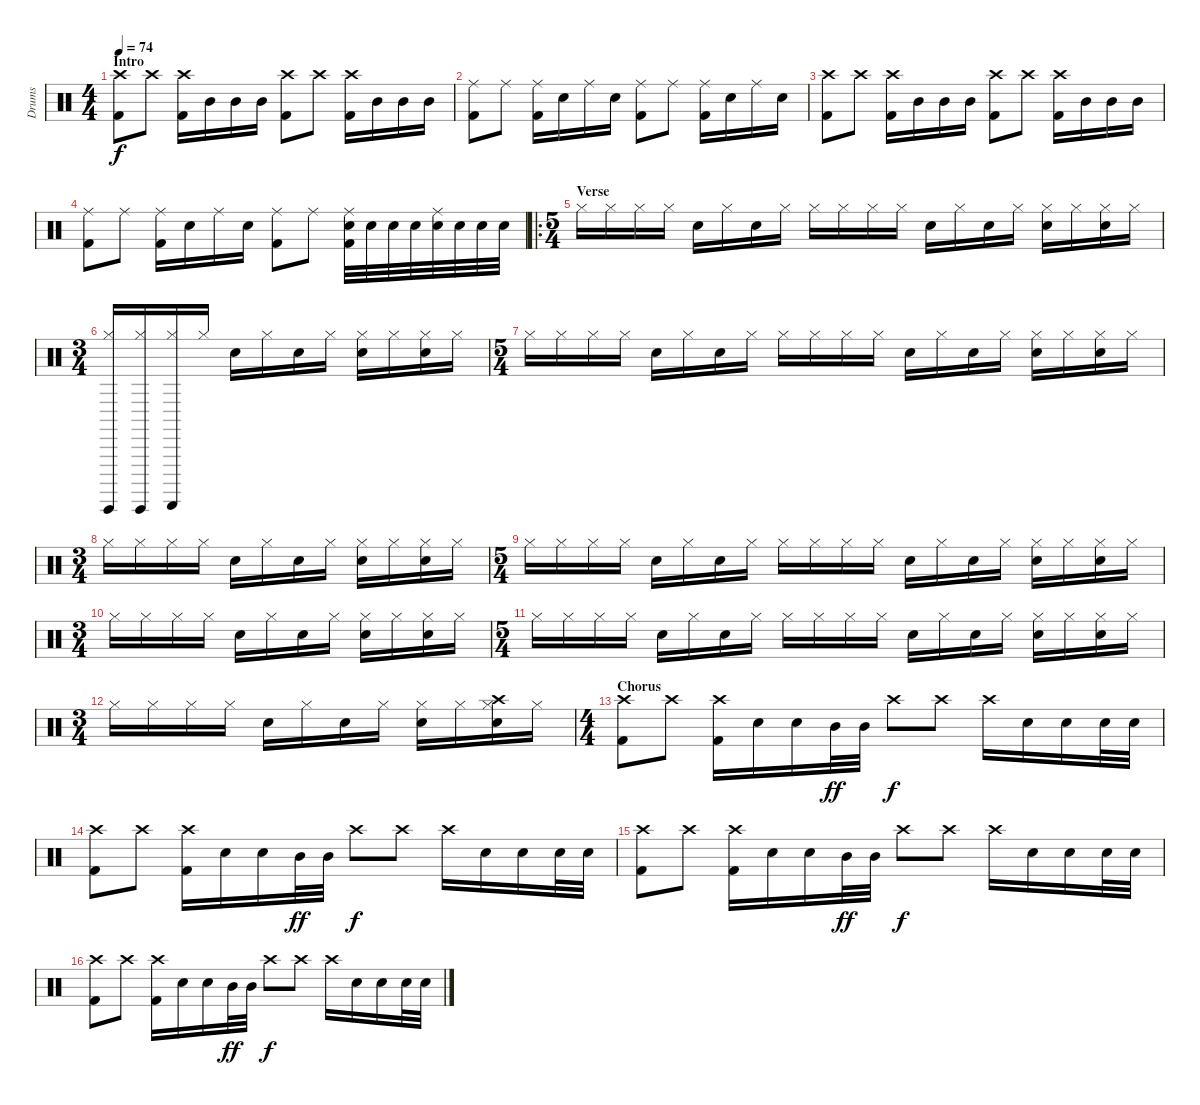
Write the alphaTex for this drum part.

\track ("Drums" "Drums") {instrument percussion}
\staff {score}
\articulation defaults
\ts (4 4)
\section ("" "Intro")
\tempo 74
\clef neutral
\ks c
("Crash high (hit)" "Kick (hit) 2").8{dy f} "Crash high (hit)".8 ("Crash high (hit)" "Kick (hit) 2").16 "Mid Tom (hit)".16 "Mid Tom (hit)".16 "Mid Tom (hit)".16 ("Crash high (hit)" "Kick (hit) 2").8 "Crash high (hit)".8 ("Crash high (hit)" "Kick (hit) 2").16 "Mid Tom (hit)".16 "Mid Tom (hit)".16 "Mid Tom (hit)".16 |
("Ride (middle)" "Kick (hit) 2").8 "Ride (middle)".8 ("Ride (middle)" "Kick (hit) 2").16 "Electric Snare (hit)".16 "Ride (middle)".16 "Electric Snare (hit)".16 ("Ride (middle)" "Kick (hit) 2").8 "Ride (middle)".8 ("Ride (middle)" "Kick (hit) 2").16 "Electric Snare (hit)".16 "Ride (middle)".16 "Electric Snare (hit)".16 |
("Crash high (hit)" "Kick (hit) 2").8 "Crash high (hit)".8 ("Crash high (hit)" "Kick (hit) 2").16 "Mid Tom (hit)".16 "Mid Tom (hit)".16 "Mid Tom (hit)".16 ("Crash high (hit)" "Kick (hit) 2").8 "Crash high (hit)".8 ("Crash high (hit)" "Kick (hit) 2").16 "Mid Tom (hit)".16 "Mid Tom (hit)".16 "Mid Tom (hit)".16 |
("Ride (middle)" "Kick (hit) 2").8 "Ride (middle)".8 ("Ride (middle)" "Kick (hit) 2").16 "Electric Snare (hit)".16 "Ride (middle)".16 "Electric Snare (hit)".16 ("Ride (middle)" "Kick (hit) 2").8 "Ride (middle)".8 ("Ride (middle)" "Electric Snare (hit)" "Kick (hit) 2").32 "Electric Snare (hit)".32 "Electric Snare (hit)".32 "Electric Snare (hit)".32 ("Ride (middle)" "Electric Snare (hit)").32 "Electric Snare (hit)".32 "Electric Snare (hit)".32 "Electric Snare (hit)".32 |
\ro
\ts (5 4)
\section ("" "Verse")
"Hi-Hat (closed)".16 "Hi-Hat (closed)".16 "Hi-Hat (closed)".16 "Hi-Hat (closed)".16 "Electric Snare (hit)".16 "Hi-Hat (closed)".16 "Electric Snare (hit)".16 "Hi-Hat (closed)".16 "Hi-Hat (closed)".16 "Hi-Hat (closed)".16 "Hi-Hat (closed)".16 "Hi-Hat (closed)".16 "Electric Snare (hit)".16 "Hi-Hat (closed)".16 "Electric Snare (hit)".16 "Hi-Hat (closed)".16 ("Hi-Hat (closed)" "Electric Snare (hit)").16 "Hi-Hat (closed)".16 ("Hi-Hat (closed)" "Electric Snare (hit)").16 "Hi-Hat (closed)".16 |
\ts (3 4)
("Guiro (hit)" "Hi-Hat (closed)").16 ("Guiro (hit)" "Hi-Hat (closed)").16 ("Guiro (scrap-return)" "Hi-Hat (closed)").16 "Hi-Hat (closed)".16 "Electric Snare (hit)".16 "Hi-Hat (closed)".16 "Electric Snare (hit)".16 "Hi-Hat (closed)".16 ("Hi-Hat (closed)" "Electric Snare (hit)").16 "Hi-Hat (closed)".16 ("Hi-Hat (closed)" "Electric Snare (hit)").16 "Hi-Hat (closed)".16 |
\ts (5 4)
"Hi-Hat (closed)".16 "Hi-Hat (closed)".16 "Hi-Hat (closed)".16 "Hi-Hat (closed)".16 "Electric Snare (hit)".16 "Hi-Hat (closed)".16 "Electric Snare (hit)".16 "Hi-Hat (closed)".16 "Hi-Hat (closed)".16 "Hi-Hat (closed)".16 "Hi-Hat (closed)".16 "Hi-Hat (closed)".16 "Electric Snare (hit)".16 "Hi-Hat (closed)".16 "Electric Snare (hit)".16 "Hi-Hat (closed)".16 ("Hi-Hat (closed)" "Electric Snare (hit)").16 "Hi-Hat (closed)".16 ("Hi-Hat (closed)" "Electric Snare (hit)").16 "Hi-Hat (closed)".16 |
\ts (3 4)
"Hi-Hat (closed)".16 "Hi-Hat (closed)".16 "Hi-Hat (closed)".16 "Hi-Hat (closed)".16 "Electric Snare (hit)".16 "Hi-Hat (closed)".16 "Electric Snare (hit)".16 "Hi-Hat (closed)".16 ("Hi-Hat (closed)" "Electric Snare (hit)").16 "Hi-Hat (closed)".16 ("Hi-Hat (closed)" "Electric Snare (hit)").16 "Hi-Hat (closed)".16 |
\ts (5 4)
"Hi-Hat (closed)".16 "Hi-Hat (closed)".16 "Hi-Hat (closed)".16 "Hi-Hat (closed)".16 "Electric Snare (hit)".16 "Hi-Hat (closed)".16 "Electric Snare (hit)".16 "Hi-Hat (closed)".16 "Hi-Hat (closed)".16 "Hi-Hat (closed)".16 "Hi-Hat (closed)".16 "Hi-Hat (closed)".16 "Electric Snare (hit)".16 "Hi-Hat (closed)".16 "Electric Snare (hit)".16 "Hi-Hat (closed)".16 ("Hi-Hat (closed)" "Electric Snare (hit)").16 "Hi-Hat (closed)".16 ("Hi-Hat (closed)" "Electric Snare (hit)").16 "Hi-Hat (closed)".16 |
\ts (3 4)
"Hi-Hat (closed)".16 "Hi-Hat (closed)".16 "Hi-Hat (closed)".16 "Hi-Hat (closed)".16 "Electric Snare (hit)".16 "Hi-Hat (closed)".16 "Electric Snare (hit)".16 "Hi-Hat (closed)".16 ("Hi-Hat (closed)" "Electric Snare (hit)").16 "Hi-Hat (closed)".16 ("Hi-Hat (closed)" "Electric Snare (hit)").16 "Hi-Hat (closed)".16 |
\ts (5 4)
"Hi-Hat (closed)".16 "Hi-Hat (closed)".16 "Hi-Hat (closed)".16 "Hi-Hat (closed)".16 "Electric Snare (hit)".16 "Hi-Hat (closed)".16 "Electric Snare (hit)".16 "Hi-Hat (closed)".16 "Hi-Hat (closed)".16 "Hi-Hat (closed)".16 "Hi-Hat (closed)".16 "Hi-Hat (closed)".16 "Electric Snare (hit)".16 "Hi-Hat (closed)".16 "Electric Snare (hit)".16 "Hi-Hat (closed)".16 ("Hi-Hat (closed)" "Electric Snare (hit)").16 "Hi-Hat (closed)".16 ("Hi-Hat (closed)" "Electric Snare (hit)").16 "Hi-Hat (closed)".16 |
\ts (3 4)
"Hi-Hat (closed)".16 "Hi-Hat (closed)".16 "Hi-Hat (closed)".16 "Hi-Hat (closed)".16 "Electric Snare (hit)".16 "Hi-Hat (closed)".16 "Electric Snare (hit)".16 "Hi-Hat (closed)".16 ("Hi-Hat (closed)" "Electric Snare (hit)").16 "Hi-Hat (closed)".16 ("Crash high (hit)" "Hi-Hat (closed)" "Electric Snare (hit)").16 "Hi-Hat (closed)".16 |
\ts (4 4)
\section ("" "Chorus")
("Crash high (hit)" "Kick (hit) 2").8 "Crash high (hit)".8 ("Crash high (hit)" "Kick (hit) 2").16 "Electric Snare (hit)".16 "Electric Snare (hit)".16 "Mid Tom (hit)".32{dy ff} "Mid Tom (hit)".32 "Crash high (hit)".8{dy f} "Crash high (hit)".8 "Crash high (hit)".16 "Electric Snare (hit)".16 "Electric Snare (hit)".16 "Electric Snare (hit)".32 "Electric Snare (hit)".32 |
("Crash high (hit)" "Kick (hit) 2").8 "Crash high (hit)".8 ("Crash high (hit)" "Kick (hit) 2").16 "Electric Snare (hit)".16 "Electric Snare (hit)".16 "Mid Tom (hit)".32{dy ff} "Mid Tom (hit)".32 "Crash high (hit)".8{dy f} "Crash high (hit)".8 "Crash high (hit)".16 "Electric Snare (hit)".16 "Electric Snare (hit)".16 "Electric Snare (hit)".32 "Electric Snare (hit)".32 |
("Crash high (hit)" "Kick (hit) 2").8 "Crash high (hit)".8 ("Crash high (hit)" "Kick (hit) 2").16 "Electric Snare (hit)".16 "Electric Snare (hit)".16 "Mid Tom (hit)".32{dy ff} "Mid Tom (hit)".32 "Crash high (hit)".8{dy f} "Crash high (hit)".8 "Crash high (hit)".16 "Electric Snare (hit)".16 "Electric Snare (hit)".16 "Electric Snare (hit)".32 "Electric Snare (hit)".32 |
("Crash high (hit)" "Kick (hit) 2").8 "Crash high (hit)".8 ("Crash high (hit)" "Kick (hit) 2").16 "Electric Snare (hit)".16 "Electric Snare (hit)".16 "Mid Tom (hit)".32{dy ff} "Mid Tom (hit)".32 "Crash high (hit)".8{dy f} "Crash high (hit)".8 "Crash high (hit)".16 "Electric Snare (hit)".16 "Electric Snare (hit)".16 "Electric Snare (hit)".32 "Electric Snare (hit)".32
